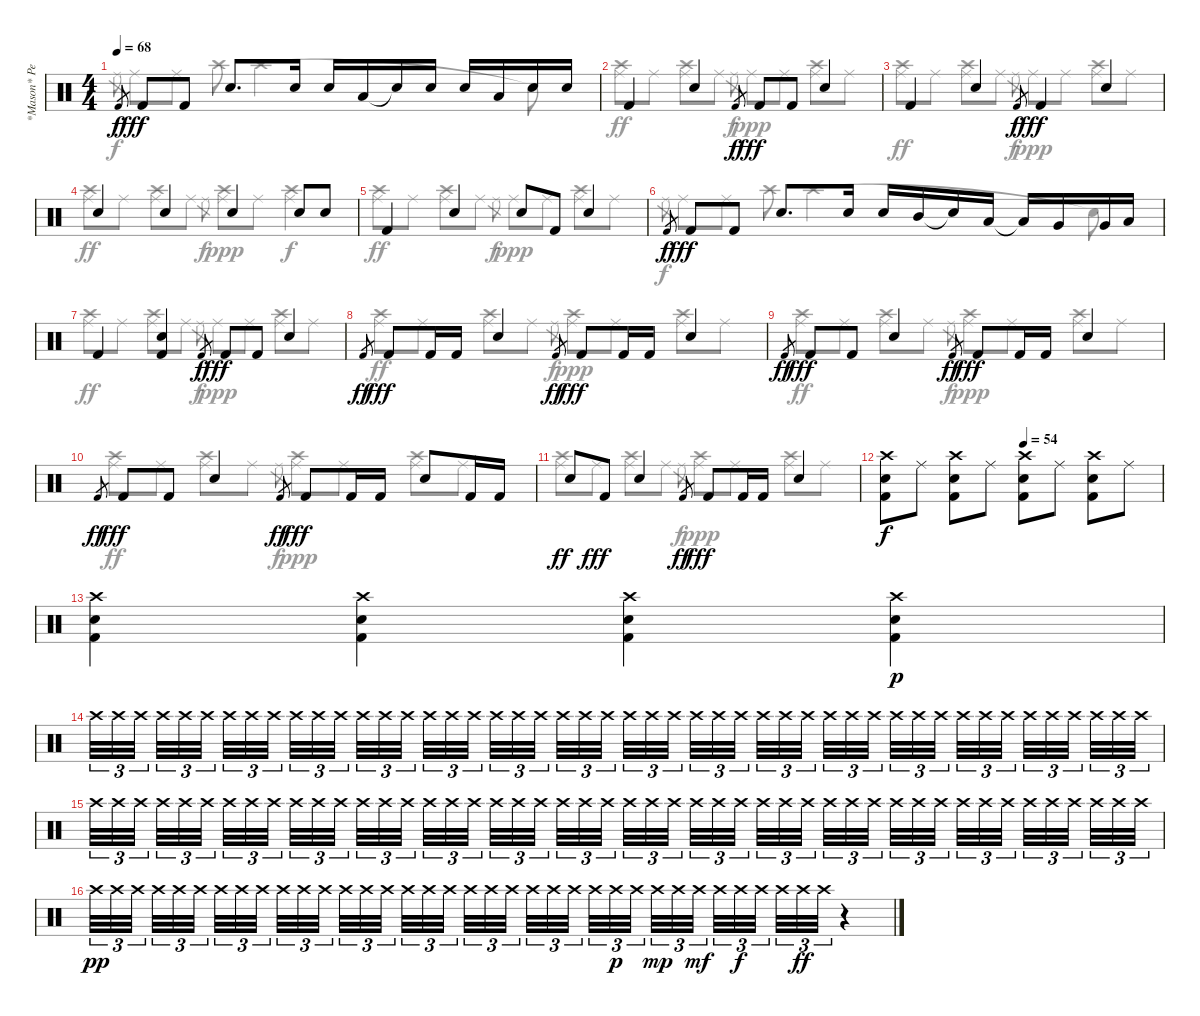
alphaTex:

\track ("*Mason* Percussion" "*Mason* Pe") {instrument percussion}
\staff {score}
\articulation defaults
\voice
\ts (4 4)
\tempo 68
\clef neutral
\ks c "Kick (hit) 2".8{gr dy f} "Kick (hit) 2".8{dy fff} "Kick (hit) 2".8 "Snare (hit) 2".8{d} "Snare (hit) 2".16 "Snare (hit) 2".16 "Low Tom (hit)".16 "Snare (hit)"{t}.16 "Snare (hit) 2".16 "Snare (hit) 2".16 "Low Tom (hit)".16 "Snare (hit) 2".16 "Snare (hit) 2".16
|
"Kick (hit) 2".4 "Snare (hit) 2".4 "Kick (hit) 2".8{gr dy f} "Kick (hit) 2".8{dy fff} "Kick (hit) 2".8 "Snare (hit) 2".4 |
"Kick (hit) 2".4 "Snare (hit) 2".4 "Kick (hit) 2".8{gr dy f} "Kick (hit) 2".4{dy fff} "Snare (hit) 2".4 |
"Snare (hit) 2".4 "Snare (hit) 2".4 "Snare (hit) 2".4 "Snare (hit) 2".8 "Snare (hit) 2".8 |
"Kick (hit) 2".4 "Snare (hit) 2".4 "Snare (hit) 2".8 "Kick (hit) 2".8 "Snare (hit) 2".4 |
"Kick (hit) 2".8{gr dy f} "Kick (hit) 2".8{dy fff} "Kick (hit) 2".8 "Snare (hit) 2".8{d} "Snare (hit) 2".16 "Snare (hit) 2".16 "Mid Tom (hit)".16 "Snare (hit)"{t}.16 "Low Tom (hit)".16 "Low Tom (hit)"{t}.16 "Very Low Tom (hit)".16 "Very Low Tom (hit)".16 "Low Floor Tom (hit)".16 |
"Kick (hit) 2".4 ("Snare (hit) 2" "Kick (hit) 2").4 "Kick (hit) 2".8{gr dy f} "Kick (hit) 2".8{dy fff} "Kick (hit) 2".8 "Snare (hit) 2".4 |
"Kick (hit) 2".8{gr dy ff} "Kick (hit) 2".8{dy fff} "Kick (hit) 2".16 "Kick (hit) 2".16 "Snare (hit) 2".4 "Kick (hit) 2".8{gr dy ff} "Kick (hit) 2".8{dy fff} "Kick (hit) 2".16 "Kick (hit) 2".16 "Snare (hit) 2".4 |
"Kick (hit) 2".8{gr dy ff} "Kick (hit) 2".8{dy fff} "Kick (hit) 2".8 "Snare (hit) 2".4 "Kick (hit) 2".8{gr dy ff} "Kick (hit) 2".8{dy fff} "Kick (hit) 2".16 "Kick (hit) 2".16 "Snare (hit) 2".4 |
"Kick (hit) 2".8{gr dy ff} "Kick (hit) 2".8{dy fff} "Kick (hit) 2".8 "Snare (hit) 2".4 "Kick (hit) 2".8{gr dy ff} "Kick (hit) 2".8{dy fff} "Kick (hit) 2".16 "Kick (hit) 2".16 "Snare (hit) 2".8 "Kick (hit) 2".16 "Kick (hit) 2".16 |
"Snare (hit) 2".8{dy ff} "Kick (hit) 2".8{dy fff} "Snare (hit) 2".4 "Kick (hit) 2".8{gr dy ff} "Kick (hit) 2".8{dy fff} "Kick (hit) 2".16 "Kick (hit) 2".16 "Snare (hit) 2".4 |
\tempo (54 0.5)
("Crash high (hit)" "Snare (hit) 2" "Kick (hit) 2").8{dy f} "Ride (middle)".8 ("Crash high (hit)" "Snare (hit) 2" "Kick (hit) 2").8 "Ride (middle)".8 ("Crash high (hit)" "Snare (hit) 2" "Kick (hit) 2").8 "Ride (middle)".8 ("Crash high (hit)" "Snare (hit) 2" "Kick (hit) 2").8 "Ride (middle)".8 |
("Crash high (hit)" "Snare (hit) 2" "Kick (hit) 2").4 ("Crash high (hit)" "Snare (hit) 2" "Kick (hit) 2").4 ("Crash high (hit)" "Snare (hit) 2" "Kick (hit) 2").4 ("Crash high (hit)" "Snare (hit) 2" "Kick (hit) 2").4{dy p} |
"Crash high (hit)".32{tu (3 2)} "Crash high (hit)".32{tu (3 2)} "Crash high (hit)".32{tu (3 2) beam splitsecondary} "Crash high (hit)".32{tu (3 2)} "Crash high (hit)".32{tu (3 2)} "Crash high (hit)".32{tu (3 2) beam splitsecondary} "Crash high (hit)".32{tu (3 2)} "Crash high (hit)".32{tu (3 2)} "Crash high (hit)".32{tu (3 2) beam splitsecondary} "Crash high (hit)".32{tu (3 2)} "Crash high (hit)".32{tu (3 2)} "Crash high (hit)".32{tu (3 2)} "Crash high (hit)".32{tu (3 2)} "Crash high (hit)".32{tu (3 2)} "Crash high (hit)".32{tu (3 2) beam splitsecondary} "Crash high (hit)".32{tu (3 2)} "Crash high (hit)".32{tu (3 2)} "Crash high (hit)".32{tu (3 2) beam splitsecondary} "Crash high (hit)".32{tu (3 2)} "Crash high (hit)".32{tu (3 2)} "Crash high (hit)".32{tu (3 2) beam splitsecondary} "Crash high (hit)".32{tu (3 2)} "Crash high (hit)".32{tu (3 2)} "Crash high (hit)".32{tu (3 2)} "Crash high (hit)".32{tu (3 2)} "Crash high (hit)".32{tu (3 2)} "Crash high (hit)".32{tu (3 2) beam splitsecondary} "Crash high (hit)".32{tu (3 2)} "Crash high (hit)".32{tu (3 2)} "Crash high (hit)".32{tu (3 2) beam splitsecondary} "Crash high (hit)".32{tu (3 2)} "Crash high (hit)".32{tu (3 2)} "Crash high (hit)".32{tu (3 2) beam splitsecondary} "Crash high (hit)".32{tu (3 2)} "Crash high (hit)".32{tu (3 2)} "Crash high (hit)".32{tu (3 2)} "Crash high (hit)".32{tu (3 2)} "Crash high (hit)".32{tu (3 2)} "Crash high (hit)".32{tu (3 2) beam splitsecondary} "Crash high (hit)".32{tu (3 2)} "Crash high (hit)".32{tu (3 2)} "Crash high (hit)".32{tu (3 2) beam splitsecondary} "Crash high (hit)".32{tu (3 2)} "Crash high (hit)".32{tu (3 2)} "Crash high (hit)".32{tu (3 2) beam splitsecondary} "Crash high (hit)".32{tu (3 2)} "Crash high (hit)".32{tu (3 2)} "Crash high (hit)".32{tu (3 2)} |
"Crash high (hit)".32{tu (3 2)} "Crash high (hit)".32{tu (3 2)} "Crash high (hit)".32{tu (3 2) beam splitsecondary} "Crash high (hit)".32{tu (3 2)} "Crash high (hit)".32{tu (3 2)} "Crash high (hit)".32{tu (3 2) beam splitsecondary} "Crash high (hit)".32{tu (3 2)} "Crash high (hit)".32{tu (3 2)} "Crash high (hit)".32{tu (3 2) beam splitsecondary} "Crash high (hit)".32{tu (3 2)} "Crash high (hit)".32{tu (3 2)} "Crash high (hit)".32{tu (3 2)} "Crash high (hit)".32{tu (3 2)} "Crash high (hit)".32{tu (3 2)} "Crash high (hit)".32{tu (3 2) beam splitsecondary} "Crash high (hit)".32{tu (3 2)} "Crash high (hit)".32{tu (3 2)} "Crash high (hit)".32{tu (3 2) beam splitsecondary} "Crash high (hit)".32{tu (3 2)} "Crash high (hit)".32{tu (3 2)} "Crash high (hit)".32{tu (3 2) beam splitsecondary} "Crash high (hit)".32{tu (3 2)} "Crash high (hit)".32{tu (3 2)} "Crash high (hit)".32{tu (3 2)} "Crash high (hit)".32{tu (3 2)} "Crash high (hit)".32{tu (3 2)} "Crash high (hit)".32{tu (3 2) beam splitsecondary} "Crash high (hit)".32{tu (3 2)} "Crash high (hit)".32{tu (3 2)} "Crash high (hit)".32{tu (3 2) beam splitsecondary} "Crash high (hit)".32{tu (3 2)} "Crash high (hit)".32{tu (3 2)} "Crash high (hit)".32{tu (3 2) beam splitsecondary} "Crash high (hit)".32{tu (3 2)} "Crash high (hit)".32{tu (3 2)} "Crash high (hit)".32{tu (3 2)} "Crash high (hit)".32{tu (3 2)} "Crash high (hit)".32{tu (3 2)} "Crash high (hit)".32{tu (3 2) beam splitsecondary} "Crash high (hit)".32{tu (3 2)} "Crash high (hit)".32{tu (3 2)} "Crash high (hit)".32{tu (3 2) beam splitsecondary} "Crash high (hit)".32{tu (3 2)} "Crash high (hit)".32{tu (3 2)} "Crash high (hit)".32{tu (3 2) beam splitsecondary} "Crash high (hit)".32{tu (3 2)} "Crash high (hit)".32{tu (3 2)} "Crash high (hit)".32{tu (3 2)} |
"Crash high (hit)".32{tu (3 2) dy pp} "Crash high (hit)".32{tu (3 2)} "Crash high (hit)".32{tu (3 2) beam splitsecondary} "Crash high (hit)".32{tu (3 2)} "Crash high (hit)".32{tu (3 2)} "Crash high (hit)".32{tu (3 2) beam splitsecondary} "Crash high (hit)".32{tu (3 2)} "Crash high (hit)".32{tu (3 2)} "Crash high (hit)".32{tu (3 2) beam splitsecondary} "Crash high (hit)".32{tu (3 2)} "Crash high (hit)".32{tu (3 2)} "Crash high (hit)".32{tu (3 2)} "Crash high (hit)".32{tu (3 2)} "Crash high (hit)".32{tu (3 2)} "Crash high (hit)".32{tu (3 2) beam splitsecondary} "Crash high (hit)".32{tu (3 2)} "Crash high (hit)".32{tu (3 2)} "Crash high (hit)".32{tu (3 2) beam splitsecondary} "Crash high (hit)".32{tu (3 2)} "Crash high (hit)".32{tu (3 2)} "Crash high (hit)".32{tu (3 2) beam splitsecondary} "Crash high (hit)".32{tu (3 2)} "Crash high (hit)".32{tu (3 2)} "Crash high (hit)".32{tu (3 2)} "Crash high (hit)".32{tu (3 2)} "Crash high (hit)".32{tu (3 2) dy p} "Crash high (hit)".32{tu (3 2) beam splitsecondary} "Crash high (hit)".32{tu (3 2) dy mp} "Crash high (hit)".32{tu (3 2)} "Crash high (hit)".32{tu (3 2) dy mf beam splitsecondary} "Crash high (hit)".32{tu (3 2)} "Crash high (hit)".32{tu (3 2) dy f} "Crash high (hit)".32{tu (3 2) beam splitsecondary} "Crash high (hit)".32{tu (3 2)} "Crash high (hit)".32{tu (3 2) dy ff} "Crash high (hit)".32{tu (3 2)} r.4
\voice
\clef neutral
\ottava regular
\simile none
\ks c "Ride (middle)".8{gr dy f} "Ride (middle)".8 "Ride (middle)".8 "Crash high (hit)".8 "Crash high (hit)".2 "Snare (hit)"{t}.8
|
("Ride (middle)" "Crash high (hit)").8{dy ff} "Ride (middle)".8 ("Ride (middle)" "Crash high (hit)").8 "Ride (middle)".8 "Ride (middle)".8{gr dy f} "Ride (middle)".8{dy ppp} "Ride (middle)".8 ("Ride (middle)" "Crash high (hit)").8 "Ride (middle)".8 |
("Ride (middle)" "Crash high (hit)").8{dy ff} "Ride (middle)".8 ("Ride (middle)" "Crash high (hit)").8 "Ride (middle)".8 "Ride (middle)".8{gr dy f} "Ride (middle)".8{dy ppp} "Ride (middle)".8 ("Ride (middle)" "Crash high (hit)").8 "Ride (middle)".8 |
("Ride (middle)" "Crash high (hit)").8{dy ff} "Ride (middle)".8 ("Ride (middle)" "Crash high (hit)").8 "Ride (middle)".8 "Ride (middle)".8{gr dy f} ("Ride (middle)" "Crash high (hit)").8{dy ppp} "Ride (middle)".8 ("Ride (middle)" "Crash high (hit)").4{dy f} |
("Ride (middle)" "Crash high (hit)").8{dy ff} "Ride (middle)".8 ("Ride (middle)" "Crash high (hit)").8 "Ride (middle)".8 "Ride (middle)".8{gr dy f} "Ride (middle)".8{dy ppp} "Ride (middle)".8 ("Ride (middle)" "Crash high (hit)").8 "Ride (middle)".8 |
"Ride (middle)".8{gr dy f} "Ride (middle)".8 "Ride (middle)".8 "Crash high (hit)".8 "Crash high (hit)".2 "Snare (hit)"{t}.8 |
("Ride (middle)" "Crash high (hit)").8{dy ff} "Ride (middle)".8 ("Ride (middle)" "Crash high (hit)").8 "Ride (middle)".8 "Ride (middle)".8{gr dy f} "Ride (middle)".8{dy ppp} "Ride (middle)".8 ("Ride (middle)" "Crash high (hit)").8 "Ride (middle)".8 |
("Ride (middle)" "Crash high (hit)").8{dy ff} "Ride (middle)".8 ("Ride (middle)" "Crash high (hit)").8 "Ride (middle)".8 "Ride (middle)".8{gr dy f} ("Ride (middle)" "Crash high (hit)").8{dy ppp} "Ride (middle)".8 ("Ride (middle)" "Crash high (hit)").8 "Ride (middle)".8 |
("Ride (middle)" "Crash high (hit)").8{dy ff} "Ride (middle)".8 ("Ride (middle)" "Crash high (hit)").8 "Ride (middle)".8 "Ride (middle)".8{gr dy f} ("Ride (middle)" "Crash high (hit)").8{dy ppp} "Ride (middle)".8 ("Ride (middle)" "Crash high (hit)").8 "Ride (middle)".8 |
("Ride (middle)" "Crash high (hit)").8{dy ff} "Ride (middle)".8 ("Ride (middle)" "Crash high (hit)").8 "Ride (middle)".8 "Ride (middle)".8{gr dy f} ("Ride (middle)" "Crash high (hit)").8{dy ppp} "Ride (middle)".8 ("Ride (middle)" "Crash high (hit)").8 "Ride (middle)".8 |
("Ride (middle)" "Crash high (hit)").8{dy ff} "Ride (middle)".8 ("Ride (middle)" "Crash high (hit)").8 "Ride (middle)".8 "Ride (middle)".8{gr dy f} ("Ride (middle)" "Crash high (hit)").8{dy ppp} "Ride (middle)".8 ("Ride (middle)" "Crash high (hit)").8 "Ride (middle)".8 |
|
|
|
|
